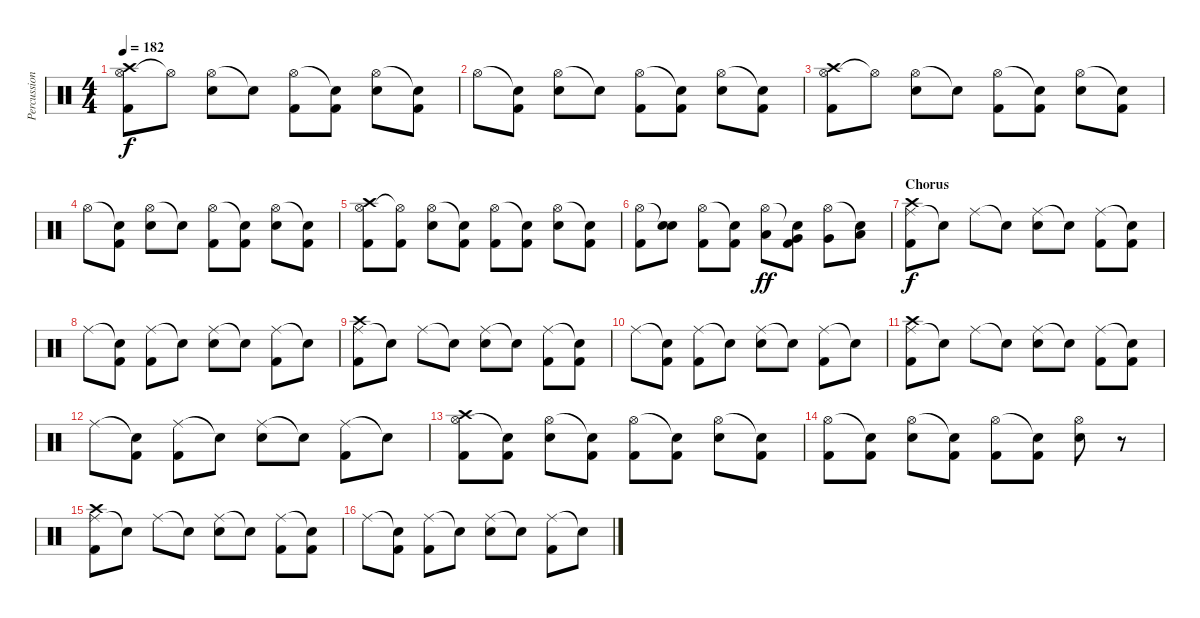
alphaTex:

\track ("Percussion" "Percussion") {instrument percussion}
\staff {score}
\articulation defaults
\ts (4 4)
\tempo 182
\clef neutral
\ks c
("Hi-Hat (open)" "Kick (hit) 2" "Crash high (hit)").8{dy f} "Hi-Hat (open)"{t}.8 ("Hi-Hat (open)" "Electric Snare (hit)").8 "Snare (hit)"{t}.8 ("Hi-Hat (open)" "Kick (hit) 2").8 ("Snare (hit)"{t} "Kick (hit) 2").8 ("Hi-Hat (open)" "Electric Snare (hit)").8 ("Snare (hit)"{t} "Kick (hit) 2").8 |
"Hi-Hat (open)".8 ("Snare (hit)"{t} "Kick (hit) 2").8 ("Hi-Hat (open)" "Electric Snare (hit)").8 "Snare (hit)"{t}.8 ("Hi-Hat (open)" "Kick (hit) 2").8 ("Snare (hit)"{t} "Kick (hit) 2").8 ("Hi-Hat (open)" "Electric Snare (hit)").8 ("Snare (hit)"{t} "Kick (hit) 2").8 |
("Hi-Hat (open)" "Kick (hit) 2" "Crash high (hit)").8 "Hi-Hat (open)"{t}.8 ("Hi-Hat (open)" "Electric Snare (hit)").8 "Snare (hit)"{t}.8 ("Hi-Hat (open)" "Kick (hit) 2").8 ("Snare (hit)"{t} "Kick (hit) 2").8 ("Hi-Hat (open)" "Electric Snare (hit)").8 ("Snare (hit)"{t} "Kick (hit) 2").8 |
"Hi-Hat (open)".8 ("Snare (hit)"{t} "Kick (hit) 2").8 ("Hi-Hat (open)" "Electric Snare (hit)").8 "Snare (hit)"{t}.8 ("Hi-Hat (open)" "Kick (hit) 2").8 ("Snare (hit)"{t} "Kick (hit) 2").8 ("Hi-Hat (open)" "Electric Snare (hit)").8 ("Snare (hit)"{t} "Kick (hit) 2").8 |
("Hi-Hat (open)" "Kick (hit) 2" "Crash high (hit)").8 ("Hi-Hat (open)"{t} "Kick (hit) 2").8 ("Hi-Hat (open)" "Electric Snare (hit)").8 ("Snare (hit)"{t} "Kick (hit) 2").8 ("Hi-Hat (open)" "Kick (hit) 2").8 ("Snare (hit)"{t} "Kick (hit) 2").8 ("Hi-Hat (open)" "Electric Snare (hit)").8 ("Snare (hit)"{t} "Kick (hit) 2").8 |
("Hi-Hat (open)" "Kick (hit) 2").8 ("Snare (hit)"{t} "Electric Snare (hit)").8 ("Hi-Hat (open)" "Kick (hit) 2").8 ("Snare (hit)"{t} "Kick (hit) 2").8 ("Hi-Hat (open)" "Low Tom (hit)").8{dy ff} ("Snare (hit)"{t} "Kick (hit) 2" "Very Low Tom (hit)").8 ("Hi-Hat (open)" "Very Low Tom (hit)").8 ("Snare (hit)"{t} "Low Floor Tom (hit)").8 |
\section ("" "Chorus")
("Ride (middle)" "Kick (hit) 2" "Crash high (hit)").8{dy f} "Snare (hit)"{t}.8 "Ride (middle)".8 "Snare (hit)"{t}.8 ("Ride (middle)" "Electric Snare (hit)").8 "Snare (hit)"{t}.8 ("Ride (middle)" "Kick (hit) 2").8 ("Snare (hit)"{t} "Kick (hit) 2").8 |
"Ride (middle)".8 ("Snare (hit)"{t} "Kick (hit) 2").8 ("Ride (middle)" "Kick (hit) 2").8 "Snare (hit)"{t}.8 ("Ride (middle)" "Electric Snare (hit)").8 "Snare (hit)"{t}.8 ("Ride (middle)" "Kick (hit) 2").8 "Snare (hit)"{t}.8 |
("Ride (middle)" "Kick (hit) 2" "Crash high (hit)").8 "Snare (hit)"{t}.8 "Ride (middle)".8 "Snare (hit)"{t}.8 ("Ride (middle)" "Electric Snare (hit)").8 "Snare (hit)"{t}.8 ("Ride (middle)" "Kick (hit) 2").8 ("Snare (hit)"{t} "Kick (hit) 2").8 |
"Ride (middle)".8 ("Snare (hit)"{t} "Kick (hit) 2").8 ("Ride (middle)" "Kick (hit) 2").8 "Snare (hit)"{t}.8 ("Ride (middle)" "Electric Snare (hit)").8 "Snare (hit)"{t}.8 ("Ride (middle)" "Kick (hit) 2").8 "Snare (hit)"{t}.8 |
("Ride (middle)" "Kick (hit) 2" "Crash high (hit)").8 "Snare (hit)"{t}.8 "Ride (middle)".8 "Snare (hit)"{t}.8 ("Ride (middle)" "Electric Snare (hit)").8 "Snare (hit)"{t}.8 ("Ride (middle)" "Kick (hit) 2").8 ("Snare (hit)"{t} "Kick (hit) 2").8 |
"Ride (middle)".8 ("Snare (hit)"{t} "Kick (hit) 2").8 ("Ride (middle)" "Kick (hit) 2").8 "Snare (hit)"{t}.8 ("Ride (middle)" "Electric Snare (hit)").8 "Snare (hit)"{t}.8 ("Ride (middle)" "Kick (hit) 2").8 "Snare (hit)"{t}.8 |
("Hi-Hat (open)" "Kick (hit) 2" "Crash high (hit)").8 ("Snare (hit)"{t} "Kick (hit) 2").8 ("Hi-Hat (open)" "Electric Snare (hit)").8 ("Snare (hit)"{t} "Kick (hit) 2").8 ("Hi-Hat (open)" "Kick (hit) 2").8 ("Snare (hit)"{t} "Kick (hit) 2").8 ("Hi-Hat (open)" "Electric Snare (hit)").8 ("Snare (hit)"{t} "Kick (hit) 2").8 |
("Hi-Hat (open)" "Kick (hit) 2").8 ("Snare (hit)"{t} "Kick (hit) 2").8 ("Hi-Hat (open)" "Electric Snare (hit)").8 ("Snare (hit)"{t} "Kick (hit) 2").8 ("Hi-Hat (open)" "Kick (hit) 2").8 ("Snare (hit)"{t} "Kick (hit) 2").8 ("Hi-Hat (open)" "Electric Snare (hit)").8 r.8 |
("Ride (middle)" "Kick (hit) 2" "Crash high (hit)").8 "Snare (hit)"{t}.8 "Ride (middle)".8 "Snare (hit)"{t}.8 ("Ride (middle)" "Electric Snare (hit)").8 "Snare (hit)"{t}.8 ("Ride (middle)" "Kick (hit) 2").8 ("Snare (hit)"{t} "Kick (hit) 2").8 |
"Ride (middle)".8 ("Snare (hit)"{t} "Kick (hit) 2").8 ("Ride (middle)" "Kick (hit) 2").8 "Snare (hit)"{t}.8 ("Ride (middle)" "Electric Snare (hit)").8 "Snare (hit)"{t}.8 ("Ride (middle)" "Kick (hit) 2").8 "Snare (hit)"{t}.8
